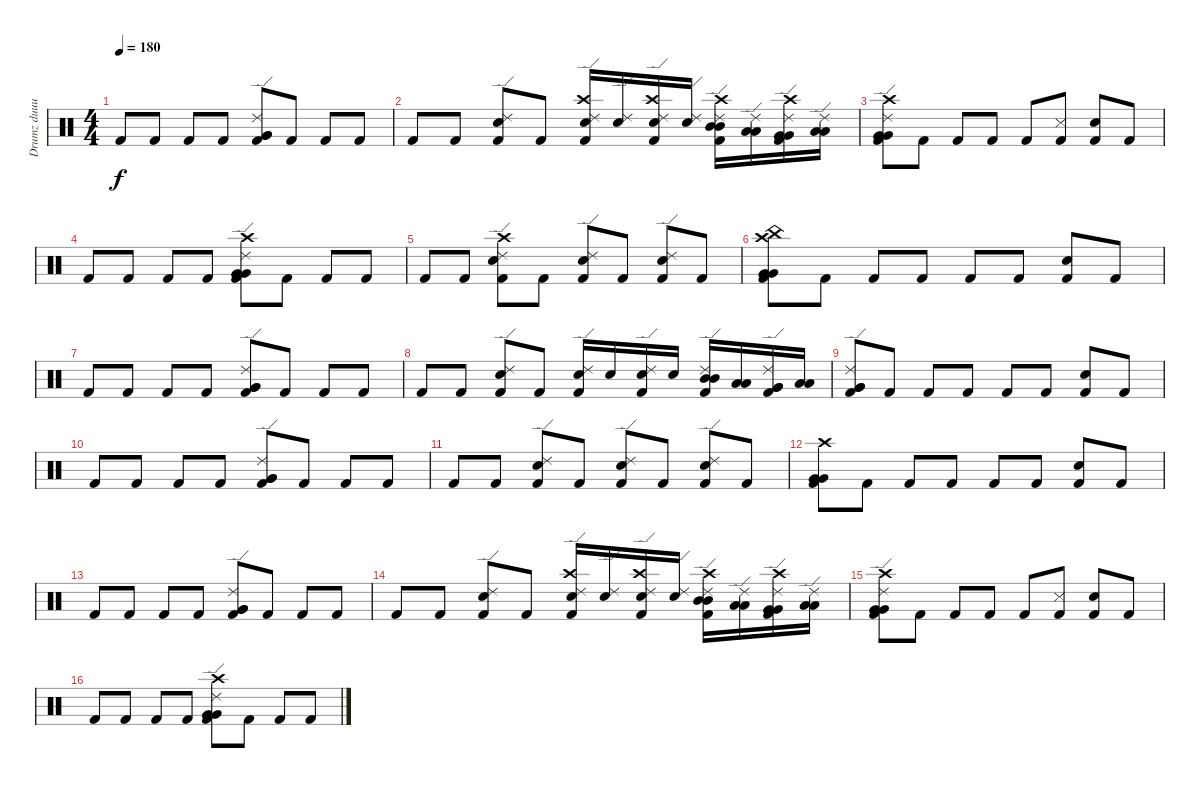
\track ("Drumz duuuuude" "Drumz duuu") {instrument percussion}
\staff {score}
\articulation defaults
\ts (4 4)
\tempo 180
\clef neutral
\ks c "Kick (hit) 2".8{dy f} "Kick (hit) 2".8 "Kick (hit) 2".8 "Kick (hit) 2".8
("Ride (edge) 2" "Kick (hit) 2" "Very Low Tom (hit)" "Very Low Tom (hit)").8 "Kick (hit) 2".8 "Kick (hit) 2".8 "Kick (hit) 2".8 |
"Kick (hit) 2".8 "Kick (hit) 2".8 ("Ride (edge) 2" "Kick (hit) 2" "Snare (hit) 2").8 "Kick (hit) 2".8 ("Ride (edge) 2" "Crash high (hit)" "Kick (hit) 2" "Electric Snare (hit)").16 ("Ride (edge) 2" "Electric Snare (hit)").16 ("Ride (edge) 2" "Crash high (hit)" "Kick (hit) 2" "Electric Snare (hit)").16 ("Ride (edge) 2" "Electric Snare (hit)").16 ("Ride (edge) 2" "Crash high (hit)" "Kick (hit) 2" "Mid Tom (hit)" "Mid Tom (hit)").16 ("Ride (edge) 2" "Low Tom (hit)" "Low Tom (hit)").16 ("Ride (edge) 2" "Crash high (hit)" "Kick (hit) 2" "Very Low Tom (hit)" "Very Low Tom (hit)").16 ("Ride (edge) 2" "Low Floor Tom (hit)" "Low Floor Tom (hit)").16 |
("Ride (edge) 2" "Crash high (hit)" "Kick (hit) 2" "Very Low Tom (hit)" "Very Low Tom (hit)").8 "Kick (hit) 2".8 "Kick (hit) 2".8 "Kick (hit) 2".8 "Kick (hit) 2".8 ("Kick (hit) 2" "Snare (side stick) 3").8 ("Kick (hit) 2" "Snare (hit) 2").8 "Kick (hit) 2".8 |
"Kick (hit) 2".8 "Kick (hit) 2".8 "Kick (hit) 2".8 "Kick (hit) 2".8 ("Ride (edge) 2" "Crash high (hit)" "Kick (hit) 2" "Very Low Tom (hit)" "Very Low Tom (hit)").8 "Kick (hit) 2".8 "Kick (hit) 2".8 "Kick (hit) 2".8 |
"Kick (hit) 2".8 "Kick (hit) 2".8 ("Ride (edge) 2" "Crash high (hit)" "Kick (hit) 2" "Snare (hit) 2").8 "Kick (hit) 2".8 ("Ride (edge) 2" "Kick (hit) 2" "Electric Snare (hit)").8 "Kick (hit) 2".8 ("Ride (edge) 2" "Kick (hit) 2" "Electric Snare (hit)").8 "Kick (hit) 2".8 |
("Crash high (hit)" "China (hit)" "Kick (hit) 2" "Very Low Tom (hit)" "Very Low Tom (hit)").8 "Kick (hit) 2".8 "Kick (hit) 2".8 "Kick (hit) 2".8 "Kick (hit) 2".8 "Kick (hit) 2".8 ("Kick (hit) 2" "Snare (hit) 2").8 "Kick (hit) 2".8 |
"Kick (hit) 2".8 "Kick (hit) 2".8 "Kick (hit) 2".8 "Kick (hit) 2".8 ("Ride (edge) 2" "Kick (hit) 2" "Very Low Tom (hit)" "Very Low Tom (hit)").8 "Kick (hit) 2".8 "Kick (hit) 2".8 "Kick (hit) 2".8 |
"Kick (hit) 2".8 "Kick (hit) 2".8 ("Ride (edge) 2" "Kick (hit) 2" "Snare (hit) 2").8 "Kick (hit) 2".8 ("Ride (edge) 2" "Kick (hit) 2" "Electric Snare (hit)").16 "Electric Snare (hit)".16 ("Ride (edge) 2" "Kick (hit) 2" "Electric Snare (hit)").16 "Electric Snare (hit)".16 ("Ride (edge) 2" "Kick (hit) 2" "Mid Tom (hit)" "Mid Tom (hit)").16 ("Low Tom (hit)" "Low Tom (hit)").16 ("Ride (edge) 2" "Kick (hit) 2" "Very Low Tom (hit)" "Very Low Tom (hit)").16 ("Low Floor Tom (hit)" "Low Floor Tom (hit)").16 |
("Ride (edge) 2" "Kick (hit) 2" "Very Low Tom (hit)" "Very Low Tom (hit)").8 "Kick (hit) 2".8 "Kick (hit) 2".8 "Kick (hit) 2".8 "Kick (hit) 2".8 "Kick (hit) 2".8 ("Kick (hit) 2" "Snare (hit) 2").8 "Kick (hit) 2".8 |
"Kick (hit) 2".8 "Kick (hit) 2".8 "Kick (hit) 2".8 "Kick (hit) 2".8 ("Ride (edge) 2" "Kick (hit) 2" "Very Low Tom (hit)" "Very Low Tom (hit)").8 "Kick (hit) 2".8 "Kick (hit) 2".8 "Kick (hit) 2".8 |
"Kick (hit) 2".8 "Kick (hit) 2".8 ("Ride (edge) 2" "Kick (hit) 2" "Snare (hit) 2").8 "Kick (hit) 2".8 ("Ride (edge) 2" "Kick (hit) 2" "Electric Snare (hit)").8 "Kick (hit) 2".8 ("Ride (edge) 2" "Kick (hit) 2" "Electric Snare (hit)").8 "Kick (hit) 2".8 |
("Crash high (hit)" "Kick (hit) 2" "Very Low Tom (hit)" "Very Low Tom (hit)").8 "Kick (hit) 2".8 "Kick (hit) 2".8 "Kick (hit) 2".8 "Kick (hit) 2".8 "Kick (hit) 2".8 ("Kick (hit) 2" "Snare (hit) 2").8 "Kick (hit) 2".8 |
"Kick (hit) 2".8 "Kick (hit) 2".8 "Kick (hit) 2".8 "Kick (hit) 2".8 ("Ride (edge) 2" "Kick (hit) 2" "Very Low Tom (hit)" "Very Low Tom (hit)").8 "Kick (hit) 2".8 "Kick (hit) 2".8 "Kick (hit) 2".8 |
"Kick (hit) 2".8 "Kick (hit) 2".8 ("Ride (edge) 2" "Kick (hit) 2" "Snare (hit) 2").8 "Kick (hit) 2".8 ("Ride (edge) 2" "Crash high (hit)" "Kick (hit) 2" "Electric Snare (hit)").16 ("Ride (edge) 2" "Electric Snare (hit)").16 ("Ride (edge) 2" "Crash high (hit)" "Kick (hit) 2" "Electric Snare (hit)").16 ("Ride (edge) 2" "Electric Snare (hit)").16 ("Ride (edge) 2" "Crash high (hit)" "Kick (hit) 2" "Mid Tom (hit)" "Mid Tom (hit)").16 ("Ride (edge) 2" "Low Tom (hit)" "Low Tom (hit)").16 ("Ride (edge) 2" "Crash high (hit)" "Kick (hit) 2" "Very Low Tom (hit)" "Very Low Tom (hit)").16 ("Ride (edge) 2" "Low Floor Tom (hit)" "Low Floor Tom (hit)").16 |
("Ride (edge) 2" "Crash high (hit)" "Kick (hit) 2" "Very Low Tom (hit)" "Very Low Tom (hit)").8 "Kick (hit) 2".8 "Kick (hit) 2".8 "Kick (hit) 2".8 "Kick (hit) 2".8 ("Kick (hit) 2" "Snare (side stick) 3").8 ("Kick (hit) 2" "Snare (hit) 2").8 "Kick (hit) 2".8 |
"Kick (hit) 2".8 "Kick (hit) 2".8 "Kick (hit) 2".8 "Kick (hit) 2".8 ("Ride (edge) 2" "Crash high (hit)" "Kick (hit) 2" "Very Low Tom (hit)" "Very Low Tom (hit)").8 "Kick (hit) 2".8 "Kick (hit) 2".8 "Kick (hit) 2".8
